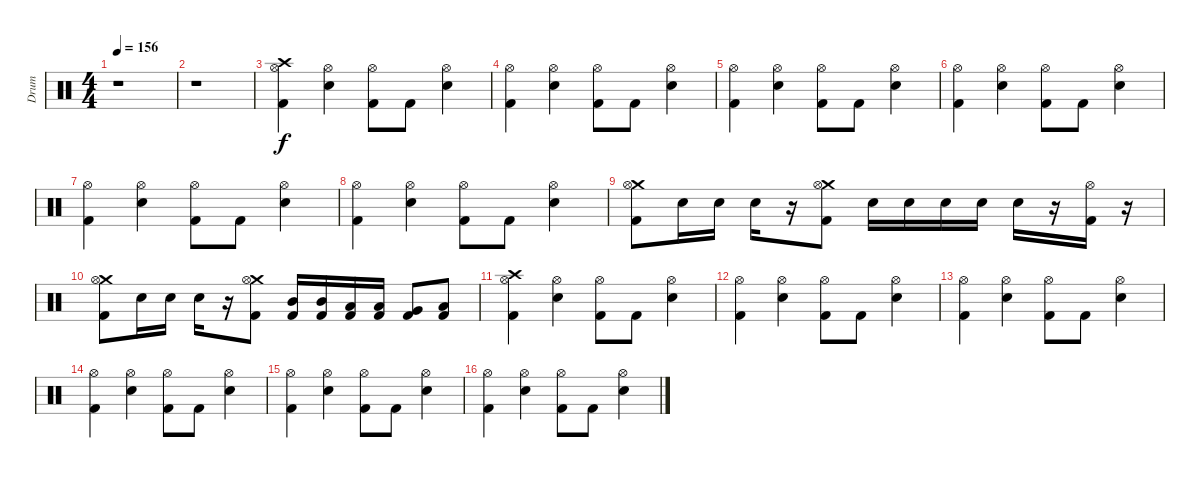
\track (" Drum" " Drum") {instrument percussion}
\staff {score}
\articulation defaults
\ts (4 4)
\tempo 156
\clef neutral
\ks c
r.1{dy f} |
r.1 |
("Crash high (hit)" "Hi-Hat (open)" "Kick (hit) 2").4 ("Hi-Hat (open)" "Snare (hit) 2").4 ("Hi-Hat (open)" "Kick (hit) 2").8 "Kick (hit) 2".8 ("Hi-Hat (open)" "Snare (hit) 2").4 |
("Hi-Hat (open)" "Kick (hit) 2").4 ("Hi-Hat (open)" "Snare (hit) 2").4 ("Hi-Hat (open)" "Kick (hit) 2").8 "Kick (hit) 2".8 ("Hi-Hat (open)" "Snare (hit) 2").4 |
("Hi-Hat (open)" "Kick (hit) 2").4 ("Hi-Hat (open)" "Snare (hit) 2").4 ("Hi-Hat (open)" "Kick (hit) 2").8 "Kick (hit) 2".8 ("Hi-Hat (open)" "Snare (hit) 2").4 |
("Hi-Hat (open)" "Kick (hit) 2").4 ("Hi-Hat (open)" "Snare (hit) 2").4 ("Hi-Hat (open)" "Kick (hit) 2").8 "Kick (hit) 2".8 ("Hi-Hat (open)" "Snare (hit) 2").4 |
("Hi-Hat (open)" "Kick (hit) 2").4 ("Hi-Hat (open)" "Snare (hit) 2").4 ("Hi-Hat (open)" "Kick (hit) 2").8 "Kick (hit) 2".8 ("Hi-Hat (open)" "Snare (hit) 2").4 |
("Hi-Hat (open)" "Kick (hit) 2").4 ("Hi-Hat (open)" "Snare (hit) 2").4 ("Hi-Hat (open)" "Kick (hit) 2").8 "Kick (hit) 2".8 ("Hi-Hat (open)" "Snare (hit) 2").4 |
("Crash medium (hit)" "Hi-Hat (open)" "Kick (hit) 2").8 "Snare (hit) 2".16 "Snare (hit) 2".16 "Snare (hit) 2".16 r.16 ("Crash medium (hit)" "Hi-Hat (open)" "Kick (hit) 2").8 "Snare (hit) 2".16 "Snare (hit) 2".16 "Snare (hit) 2".16 "Snare (hit) 2".16 "Snare (hit) 2".16 r.16 ("Hi-Hat (open)" "Kick (hit) 2").16 r.16 |
("Crash medium (hit)" "Hi-Hat (open)" "Kick (hit) 2").8 "Snare (hit) 2".16 "Snare (hit) 2".16 "Snare (hit) 2".16 r.16 ("Crash medium (hit)" "Hi-Hat (open)" "Kick (hit) 2").8 ("Mid Tom (hit)" "Kick (hit) 2").16 ("Mid Tom (hit)" "Kick (hit) 2").16 ("Low Tom (hit)" "Kick (hit) 2").16 ("Low Tom (hit)" "Kick (hit) 2").16 ("Very Low Tom (hit)" "Kick (hit) 2").8 ("Low Floor Tom (hit)" "Kick (hit) 2").8 |
("Crash high (hit)" "Hi-Hat (open)" "Kick (hit) 2").4 ("Hi-Hat (open)" "Snare (hit) 2").4 ("Hi-Hat (open)" "Kick (hit) 2").8 "Kick (hit) 2".8 ("Hi-Hat (open)" "Snare (hit) 2").4 |
("Hi-Hat (open)" "Kick (hit) 2").4 ("Hi-Hat (open)" "Snare (hit) 2").4 ("Hi-Hat (open)" "Kick (hit) 2").8 "Kick (hit) 2".8 ("Hi-Hat (open)" "Snare (hit) 2").4 |
("Hi-Hat (open)" "Kick (hit) 2").4 ("Hi-Hat (open)" "Snare (hit) 2").4 ("Hi-Hat (open)" "Kick (hit) 2").8 "Kick (hit) 2".8 ("Hi-Hat (open)" "Snare (hit) 2").4 |
("Hi-Hat (open)" "Kick (hit) 2").4 ("Hi-Hat (open)" "Snare (hit) 2").4 ("Hi-Hat (open)" "Kick (hit) 2").8 "Kick (hit) 2".8 ("Hi-Hat (open)" "Snare (hit) 2").4 |
("Hi-Hat (open)" "Kick (hit) 2").4 ("Hi-Hat (open)" "Snare (hit) 2").4 ("Hi-Hat (open)" "Kick (hit) 2").8 "Kick (hit) 2".8 ("Hi-Hat (open)" "Snare (hit) 2").4 |
("Hi-Hat (open)" "Kick (hit) 2").4 ("Hi-Hat (open)" "Snare (hit) 2").4 ("Hi-Hat (open)" "Kick (hit) 2").8 "Kick (hit) 2".8 ("Hi-Hat (open)" "Snare (hit) 2").4
